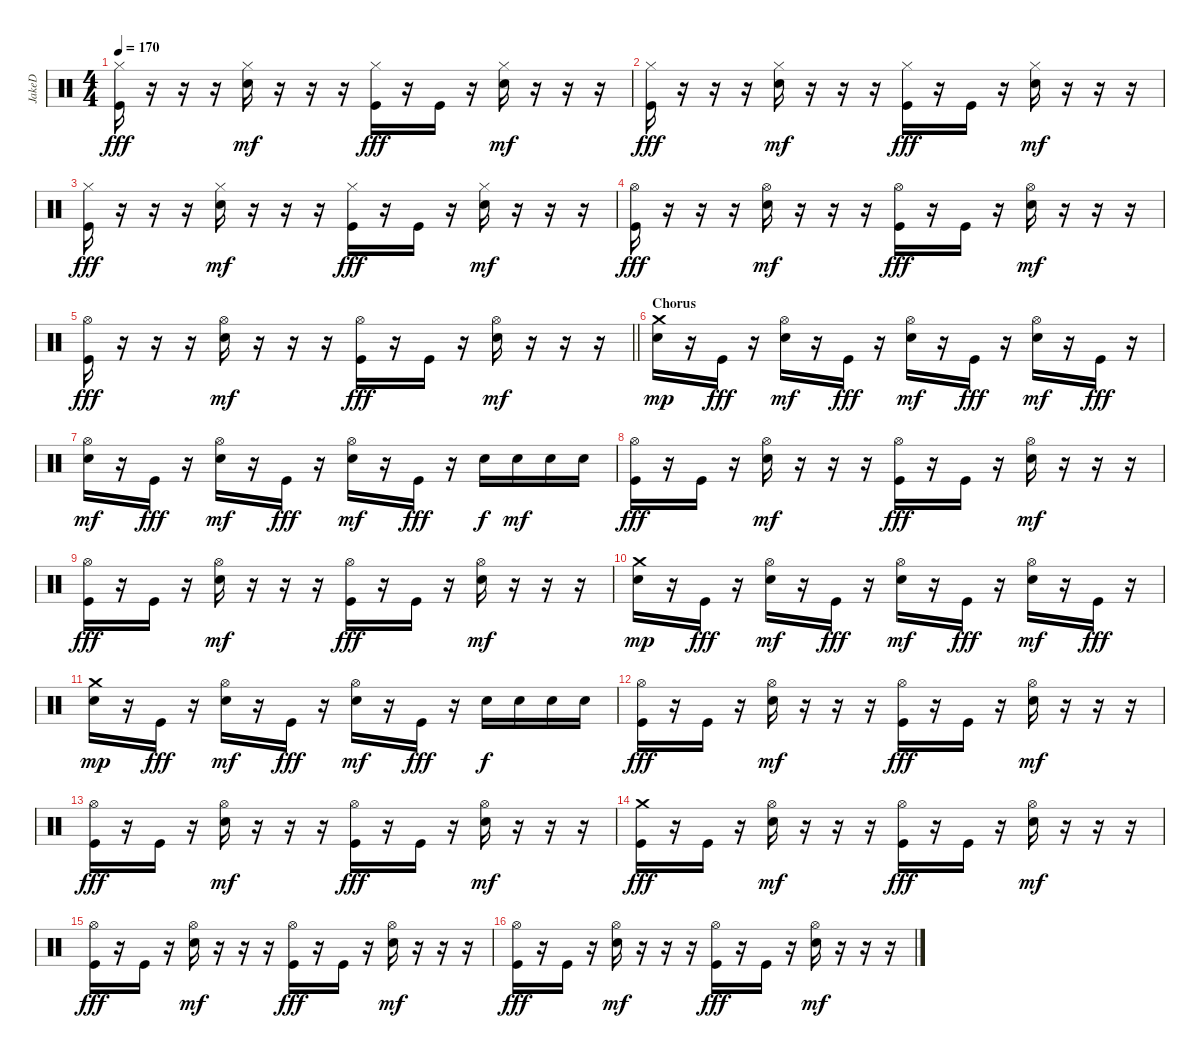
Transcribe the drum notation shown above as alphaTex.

\track ("JakeD" "JakeD") {instrument percussion}
\staff {score}
\articulation defaults
\ts (4 4)
\tempo 170
\clef neutral
\ks c
("Hi-Hat (closed)" "Kick (hit)").16{dy fff} r.16 r.16 r.16 ("Hi-Hat (closed)" "Electric Snare (hit)").16{dy mf} r.16 r.16 r.16 ("Hi-Hat (closed)" "Kick (hit)").16{dy fff} r.16 "Kick (hit)".16 r.16 ("Hi-Hat (closed)" "Electric Snare (hit)").16{dy mf} r.16 r.16 r.16 |
("Hi-Hat (closed)" "Kick (hit)").16{dy fff} r.16 r.16 r.16 ("Hi-Hat (closed)" "Electric Snare (hit)").16{dy mf} r.16 r.16 r.16 ("Hi-Hat (closed)" "Kick (hit)").16{dy fff} r.16 "Kick (hit)".16 r.16 ("Hi-Hat (closed)" "Electric Snare (hit)").16{dy mf} r.16 r.16 r.16 |
("Hi-Hat (closed)" "Kick (hit)").16{dy fff} r.16 r.16 r.16 ("Hi-Hat (closed)" "Electric Snare (hit)").16{dy mf} r.16 r.16 r.16 ("Hi-Hat (closed)" "Kick (hit)").16{dy fff} r.16 "Kick (hit)".16 r.16 ("Hi-Hat (closed)" "Electric Snare (hit)").16{dy mf} r.16 r.16 r.16 |
("Hi-Hat (open)" "Kick (hit)").16{dy fff} r.16 r.16 r.16 ("Hi-Hat (open)" "Electric Snare (hit)").16{dy mf} r.16 r.16 r.16 ("Hi-Hat (open)" "Kick (hit)").16{dy fff} r.16 "Kick (hit)".16 r.16 ("Hi-Hat (open)" "Electric Snare (hit)").16{dy mf} r.16 r.16 r.16 |
\barLineRight lightlight
("Hi-Hat (open)" "Kick (hit)").16{dy fff} r.16 r.16 r.16 ("Hi-Hat (open)" "Electric Snare (hit)").16{dy mf} r.16 r.16 r.16 ("Hi-Hat (open)" "Kick (hit)").16{dy fff} r.16 "Kick (hit)".16 r.16 ("Hi-Hat (open)" "Electric Snare (hit)").16{dy mf} r.16 r.16 r.16 |
\section ("" "Chorus")
("Crash medium (hit)" "Electric Snare (hit)").16{dy mp} r.16 "Kick (hit)".16{dy fff} r.16 ("Hi-Hat (open)" "Electric Snare (hit)").16{dy mf} r.16 "Kick (hit)".16{dy fff} r.16 ("Hi-Hat (open)" "Electric Snare (hit)").16{dy mf} r.16 "Kick (hit)".16{dy fff} r.16 ("Hi-Hat (open)" "Electric Snare (hit)").16{dy mf} r.16 "Kick (hit)".16{dy fff} r.16 |
("Hi-Hat (open)" "Electric Snare (hit)").16{dy mf} r.16 "Kick (hit)".16{dy fff} r.16 ("Hi-Hat (open)" "Electric Snare (hit)").16{dy mf} r.16 "Kick (hit)".16{dy fff} r.16 ("Hi-Hat (open)" "Electric Snare (hit)").16{dy mf} r.16 "Kick (hit)".16{dy fff} r.16 "Electric Snare (hit)".16{dy f} "Electric Snare (hit)".16{dy mf} "Electric Snare (hit)".16 "Electric Snare (hit)".16 |
("Hi-Hat (open)" "Kick (hit)").16{dy fff} r.16 "Kick (hit)".16 r.16 ("Hi-Hat (open)" "Electric Snare (hit)").16{dy mf} r.16 r.16 r.16 ("Hi-Hat (open)" "Kick (hit)").16{dy fff} r.16 "Kick (hit)".16 r.16 ("Hi-Hat (open)" "Electric Snare (hit)").16{dy mf} r.16 r.16 r.16 |
("Hi-Hat (open)" "Kick (hit)").16{dy fff} r.16 "Kick (hit)".16 r.16 ("Hi-Hat (open)" "Electric Snare (hit)").16{dy mf} r.16 r.16 r.16 ("Hi-Hat (open)" "Kick (hit)").16{dy fff} r.16 "Kick (hit)".16 r.16 ("Hi-Hat (open)" "Electric Snare (hit)").16{dy mf} r.16 r.16 r.16 |
("Crash medium (hit)" "Electric Snare (hit)").16{dy mp} r.16 "Kick (hit)".16{dy fff} r.16 ("Hi-Hat (open)" "Electric Snare (hit)").16{dy mf} r.16 "Kick (hit)".16{dy fff} r.16 ("Hi-Hat (open)" "Electric Snare (hit)").16{dy mf} r.16 "Kick (hit)".16{dy fff} r.16 ("Hi-Hat (open)" "Electric Snare (hit)").16{dy mf} r.16 "Kick (hit)".16{dy fff} r.16 |
("Crash medium (hit)" "Electric Snare (hit)").16{dy mp} r.16 "Kick (hit)".16{dy fff} r.16 ("Hi-Hat (open)" "Electric Snare (hit)").16{dy mf} r.16 "Kick (hit)".16{dy fff} r.16 ("Hi-Hat (open)" "Electric Snare (hit)").16{dy mf} r.16 "Kick (hit)".16{dy fff} r.16 "Electric Snare (hit)".16{dy f} "Electric Snare (hit)".16 "Electric Snare (hit)".16 "Electric Snare (hit)".16 |
("Hi-Hat (open)" "Kick (hit)").16{dy fff} r.16 "Kick (hit)".16 r.16 ("Hi-Hat (open)" "Electric Snare (hit)").16{dy mf} r.16 r.16 r.16 ("Hi-Hat (open)" "Kick (hit)").16{dy fff} r.16 "Kick (hit)".16 r.16 ("Hi-Hat (open)" "Electric Snare (hit)").16{dy mf} r.16 r.16 r.16 |
("Hi-Hat (open)" "Kick (hit)").16{dy fff} r.16 "Kick (hit)".16 r.16 ("Hi-Hat (open)" "Electric Snare (hit)").16{dy mf} r.16 r.16 r.16 ("Hi-Hat (open)" "Kick (hit)").16{dy fff} r.16 "Kick (hit)".16 r.16 ("Hi-Hat (open)" "Electric Snare (hit)").16{dy mf} r.16 r.16 r.16 |
("Crash medium (hit)" "Kick (hit)").16{dy fff} r.16 "Kick (hit)".16 r.16 ("Hi-Hat (open)" "Electric Snare (hit)").16{dy mf} r.16 r.16 r.16 ("Hi-Hat (open)" "Kick (hit)").16{dy fff} r.16 "Kick (hit)".16 r.16 ("Hi-Hat (open)" "Electric Snare (hit)").16{dy mf} r.16 r.16 r.16 |
("Hi-Hat (open)" "Kick (hit)").16{dy fff} r.16 "Kick (hit)".16 r.16 ("Hi-Hat (open)" "Electric Snare (hit)").16{dy mf} r.16 r.16 r.16 ("Hi-Hat (open)" "Kick (hit)").16{dy fff} r.16 "Kick (hit)".16 r.16 ("Hi-Hat (open)" "Electric Snare (hit)").16{dy mf} r.16 r.16 r.16 |
("Hi-Hat (open)" "Kick (hit)").16{dy fff} r.16 "Kick (hit)".16 r.16 ("Hi-Hat (open)" "Electric Snare (hit)").16{dy mf} r.16 r.16 r.16 ("Hi-Hat (open)" "Kick (hit)").16{dy fff} r.16 "Kick (hit)".16 r.16 ("Hi-Hat (open)" "Electric Snare (hit)").16{dy mf} r.16 r.16 r.16
